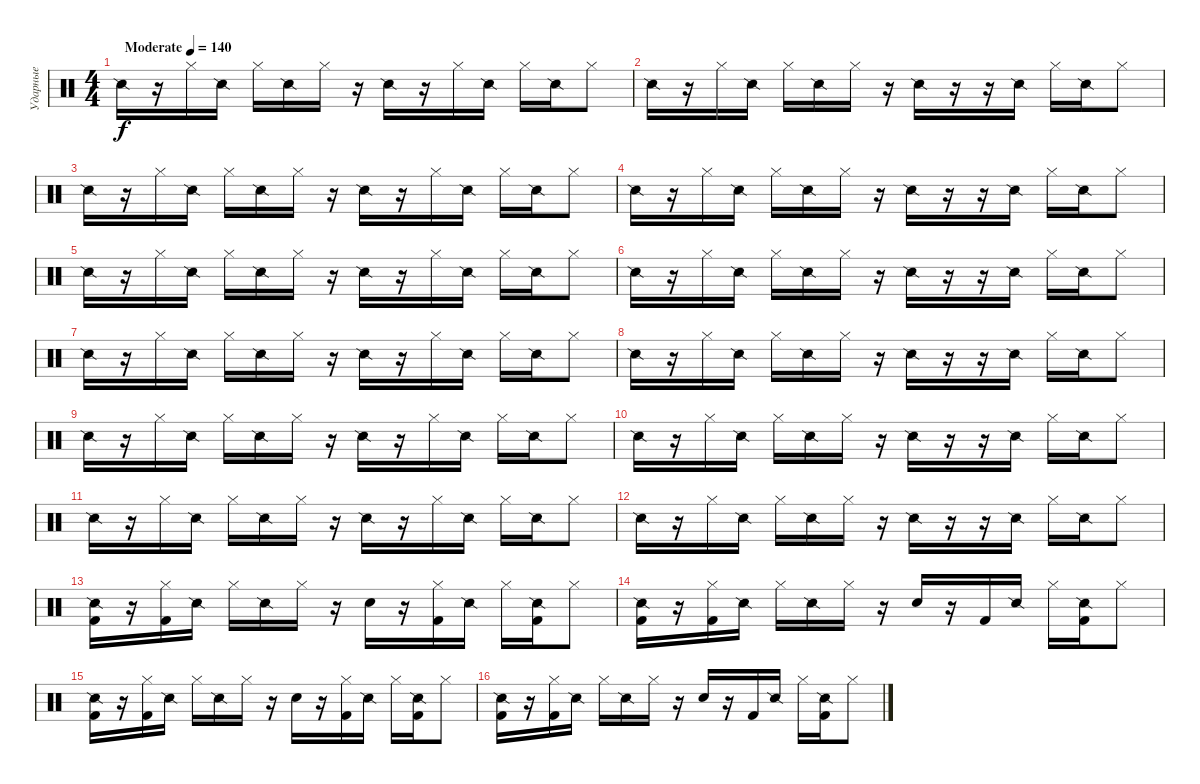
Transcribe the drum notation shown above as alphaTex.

\track ("Ударные" "Ударные") {instrument percussion}
\staff {score}
\articulation defaults
\ts (4 4)
\tempo (140 "Moderate")
\clef neutral
\ks c "Snare (side stick) 2".16{dy f}
r.16 "Hi-Hat (closed)".16 "Snare (side stick) 2".16 "Hi-Hat (closed)".16 "Snare (side stick) 2".16 "Hi-Hat (closed)".16 r.16 "Snare (side stick) 2".16 r.16 "Hi-Hat (closed)".16 "Snare (side stick) 2".16 "Hi-Hat (closed)".16 "Snare (side stick) 2".16 "Hi-Hat (closed)".8 |
"Snare (side stick) 2".16 r.16 "Hi-Hat (closed)".16 "Snare (side stick) 2".16 "Hi-Hat (closed)".16 "Snare (side stick) 2".16 "Hi-Hat (closed)".16 r.16 "Snare (side stick) 2".16 r.16 r.16 "Snare (side stick) 2".16 "Hi-Hat (closed)".16 "Snare (side stick) 2".16 "Hi-Hat (closed)".8 |
"Snare (side stick) 2".16 r.16 "Hi-Hat (closed)".16 "Snare (side stick) 2".16 "Hi-Hat (closed)".16 "Snare (side stick) 2".16 "Hi-Hat (closed)".16 r.16 "Snare (side stick) 2".16 r.16 "Hi-Hat (closed)".16 "Snare (side stick) 2".16 "Hi-Hat (closed)".16 "Snare (side stick) 2".16 "Hi-Hat (closed)".8 |
"Snare (side stick) 2".16 r.16 "Hi-Hat (closed)".16 "Snare (side stick) 2".16 "Hi-Hat (closed)".16 "Snare (side stick) 2".16 "Hi-Hat (closed)".16 r.16 "Snare (side stick) 2".16 r.16 r.16 "Snare (side stick) 2".16 "Hi-Hat (closed)".16 "Snare (side stick) 2".16 "Hi-Hat (closed)".8 |
"Snare (side stick) 2".16 r.16 "Hi-Hat (closed)".16 "Snare (side stick) 2".16 "Hi-Hat (closed)".16 "Snare (side stick) 2".16 "Hi-Hat (closed)".16 r.16 "Snare (side stick) 2".16 r.16 "Hi-Hat (closed)".16 "Snare (side stick) 2".16 "Hi-Hat (closed)".16 "Snare (side stick) 2".16 "Hi-Hat (closed)".8 |
"Snare (side stick) 2".16 r.16 "Hi-Hat (closed)".16 "Snare (side stick) 2".16 "Hi-Hat (closed)".16 "Snare (side stick) 2".16 "Hi-Hat (closed)".16 r.16 "Snare (side stick) 2".16 r.16 r.16 "Snare (side stick) 2".16 "Hi-Hat (closed)".16 "Snare (side stick) 2".16 "Hi-Hat (closed)".8 |
"Snare (side stick) 2".16 r.16 "Hi-Hat (closed)".16 "Snare (side stick) 2".16 "Hi-Hat (closed)".16 "Snare (side stick) 2".16 "Hi-Hat (closed)".16 r.16 "Snare (side stick) 2".16 r.16 "Hi-Hat (closed)".16 "Snare (side stick) 2".16 "Hi-Hat (closed)".16 "Snare (side stick) 2".16 "Hi-Hat (closed)".8 |
"Snare (side stick) 2".16 r.16 "Hi-Hat (closed)".16 "Snare (side stick) 2".16 "Hi-Hat (closed)".16 "Snare (side stick) 2".16 "Hi-Hat (closed)".16 r.16 "Snare (side stick) 2".16 r.16 r.16 "Snare (side stick) 2".16 "Hi-Hat (closed)".16 "Snare (side stick) 2".16 "Hi-Hat (closed)".8 |
"Snare (side stick) 2".16 r.16 "Hi-Hat (closed)".16 "Snare (side stick) 2".16 "Hi-Hat (closed)".16 "Snare (side stick) 2".16 "Hi-Hat (closed)".16 r.16 "Snare (side stick) 2".16 r.16 "Hi-Hat (closed)".16 "Snare (side stick) 2".16 "Hi-Hat (closed)".16 "Snare (side stick) 2".16 "Hi-Hat (closed)".8 |
"Snare (side stick) 2".16 r.16 "Hi-Hat (closed)".16 "Snare (side stick) 2".16 "Hi-Hat (closed)".16 "Snare (side stick) 2".16 "Hi-Hat (closed)".16 r.16 "Snare (side stick) 2".16 r.16 r.16 "Snare (side stick) 2".16 "Hi-Hat (closed)".16 "Snare (side stick) 2".16 "Hi-Hat (closed)".8 |
"Snare (side stick) 2".16 r.16 "Hi-Hat (closed)".16 "Snare (side stick) 2".16 "Hi-Hat (closed)".16 "Snare (side stick) 2".16 "Hi-Hat (closed)".16 r.16 "Snare (side stick) 2".16 r.16 "Hi-Hat (closed)".16 "Snare (side stick) 2".16 "Hi-Hat (closed)".16 "Snare (side stick) 2".16 "Hi-Hat (closed)".8 |
"Snare (side stick) 2".16 r.16 "Hi-Hat (closed)".16 "Snare (side stick) 2".16 "Hi-Hat (closed)".16 "Snare (side stick) 2".16 "Hi-Hat (closed)".16 r.16 "Snare (side stick) 2".16 r.16 r.16 "Snare (side stick) 2".16 "Hi-Hat (closed)".16 "Snare (side stick) 2".16 "Hi-Hat (closed)".8 |
("Snare (side stick) 2" "Kick (hit) 2").16 r.16 ("Hi-Hat (closed)" "Kick (hit) 2").16 "Snare (side stick) 2".16 "Hi-Hat (closed)".16 "Snare (side stick) 2".16 "Hi-Hat (closed)".16 r.16 "Electric Snare (hit)".16 r.16 ("Hi-Hat (closed)" "Kick (hit) 2").16 "Snare (side stick) 2".16 "Hi-Hat (closed)".16 ("Snare (side stick) 2" "Kick (hit) 2").16 "Hi-Hat (closed)".8 |
("Snare (side stick) 2" "Kick (hit) 2").16 r.16 ("Hi-Hat (closed)" "Kick (hit) 2").16 "Snare (side stick) 2".16 "Hi-Hat (closed)".16 "Snare (side stick) 2".16 "Hi-Hat (closed)".16 r.16 "Electric Snare (hit)".16 r.16 "Kick (hit) 2".16 "Snare (side stick) 2".16 "Hi-Hat (closed)".16 ("Snare (side stick) 2" "Kick (hit) 2").16 "Hi-Hat (closed)".8 |
("Snare (side stick) 2" "Kick (hit) 2").16 r.16 ("Hi-Hat (closed)" "Kick (hit) 2").16 "Snare (side stick) 2".16 "Hi-Hat (closed)".16 "Snare (side stick) 2".16 "Hi-Hat (closed)".16 r.16 "Electric Snare (hit)".16 r.16 ("Hi-Hat (closed)" "Kick (hit) 2").16 "Snare (side stick) 2".16 "Hi-Hat (closed)".16 ("Snare (side stick) 2" "Kick (hit) 2").16 "Hi-Hat (closed)".8 |
("Snare (side stick) 2" "Kick (hit) 2").16 r.16 ("Hi-Hat (closed)" "Kick (hit) 2").16 "Snare (side stick) 2".16 "Hi-Hat (closed)".16 "Snare (side stick) 2".16 "Hi-Hat (closed)".16 r.16 "Electric Snare (hit)".16 r.16 "Kick (hit) 2".16 "Snare (side stick) 2".16 "Hi-Hat (closed)".16 ("Snare (side stick) 2" "Kick (hit) 2").16 "Hi-Hat (closed)".8
